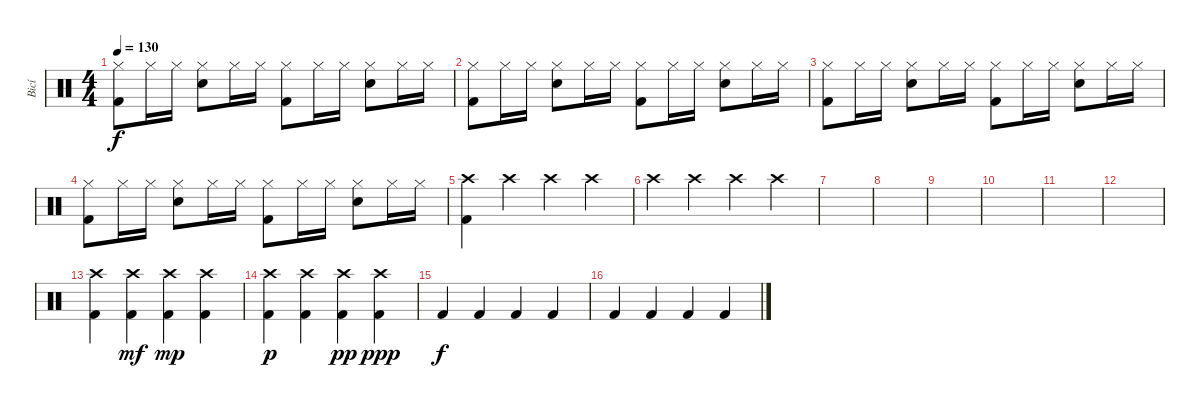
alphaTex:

\track ("Bicí" "Bicí") {instrument percussion}
\staff {score}
\articulation defaults
\ts (4 4)
\tempo 130
\clef neutral
\ks c
("Kick (hit) 2" "Hi-Hat (closed)").8{dy f} "Hi-Hat (closed)".16 "Hi-Hat (closed)".16 ("Hi-Hat (closed)" "Snare (hit) 2").8 "Hi-Hat (closed)".16 "Hi-Hat (closed)".16 ("Kick (hit) 2" "Hi-Hat (closed)").8 "Hi-Hat (closed)".16 "Hi-Hat (closed)".16 ("Hi-Hat (closed)" "Snare (hit) 2").8 "Hi-Hat (closed)".16 "Hi-Hat (closed)".16 |
("Kick (hit) 2" "Hi-Hat (closed)").8 "Hi-Hat (closed)".16 "Hi-Hat (closed)".16 ("Hi-Hat (closed)" "Snare (hit) 2").8 "Hi-Hat (closed)".16 "Hi-Hat (closed)".16 ("Kick (hit) 2" "Hi-Hat (closed)").8 "Hi-Hat (closed)".16 "Hi-Hat (closed)".16 ("Hi-Hat (closed)" "Snare (hit) 2").8 "Hi-Hat (closed)".16 "Hi-Hat (closed)".16 |
("Kick (hit) 2" "Hi-Hat (closed)").8 "Hi-Hat (closed)".16 "Hi-Hat (closed)".16 ("Hi-Hat (closed)" "Snare (hit) 2").8 "Hi-Hat (closed)".16 "Hi-Hat (closed)".16 ("Kick (hit) 2" "Hi-Hat (closed)").8 "Hi-Hat (closed)".16 "Hi-Hat (closed)".16 ("Hi-Hat (closed)" "Snare (hit) 2").8 "Hi-Hat (closed)".16 "Hi-Hat (closed)".16 |
("Kick (hit) 2" "Hi-Hat (closed)").8 "Hi-Hat (closed)".16 "Hi-Hat (closed)".16 ("Hi-Hat (closed)" "Snare (hit) 2").8 "Hi-Hat (closed)".16 "Hi-Hat (closed)".16 ("Kick (hit) 2" "Hi-Hat (closed)").8 "Hi-Hat (closed)".16 "Hi-Hat (closed)".16 ("Hi-Hat (closed)" "Snare (hit) 2").8 "Hi-Hat (closed)".16 "Hi-Hat (closed)".16 |
("Kick (hit) 2" "Crash high (hit)").4{volume 0} "Crash high (hit)".4 "Crash high (hit)".4 "Crash high (hit)".4 |
"Crash high (hit)".4 "Crash high (hit)".4 "Crash high (hit)".4 "Crash high (hit)".4 |
|
|
|
|
|
|
("Crash high (hit)" "Kick (hit) 2").4{volume 11} ("Crash high (hit)" "Kick (hit) 2").4{dy mf} ("Crash high (hit)" "Kick (hit) 2").4{dy mp} ("Crash high (hit)" "Kick (hit) 2").4 |
("Crash high (hit)" "Kick (hit) 2").4{dy p} ("Crash high (hit)" "Kick (hit) 2").4 ("Crash high (hit)" "Kick (hit) 2").4{dy pp} ("Crash high (hit)" "Kick (hit) 2").4{dy ppp} |
"Kick (hit) 2".4{dy f} "Kick (hit) 2".4 "Kick (hit) 2".4 "Kick (hit) 2".4 |
"Kick (hit) 2".4 "Kick (hit) 2".4 "Kick (hit) 2".4 "Kick (hit) 2".4
